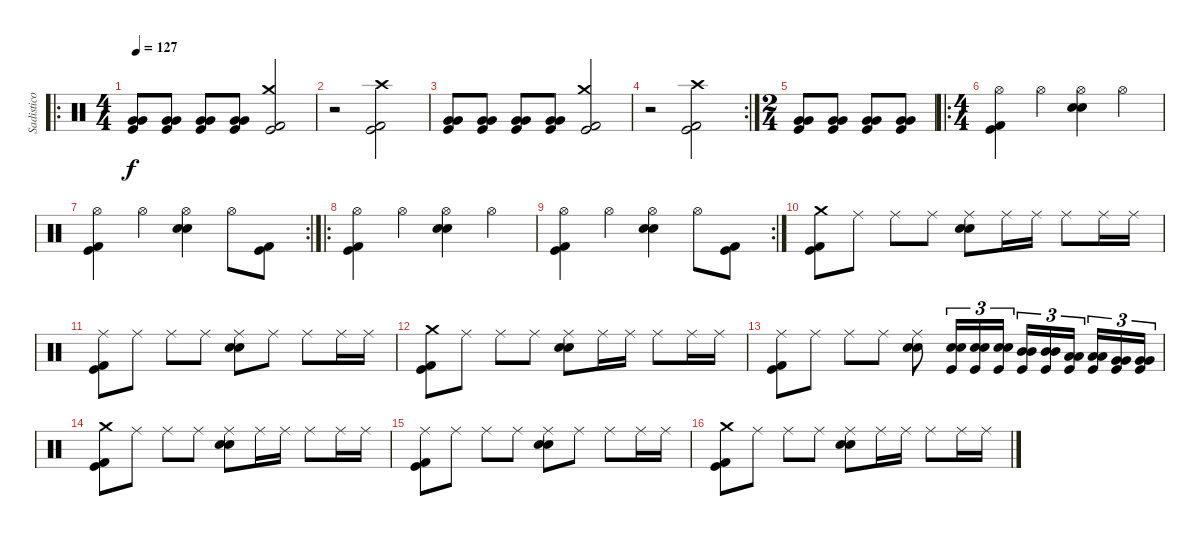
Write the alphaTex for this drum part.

\track ("Sadistico" "Sadistico") {instrument percussion}
\staff {score}
\articulation defaults
\ro
\ts (4 4)
\tempo 127
\clef neutral
\ks c
("Kick (hit)" "Very Low Tom (hit)" "Very Low Tom (hit)").8{dy f} ("Kick (hit)" "Very Low Tom (hit)" "Very Low Tom (hit)").8 ("Kick (hit)" "Very Low Tom (hit)" "Very Low Tom (hit)").8 ("Kick (hit)" "Very Low Tom (hit)" "Very Low Tom (hit)").8 ("Crash medium (hit)" "Kick (hit)" "Kick (hit) 2").2 |
r.2 ("Crash high (hit)" "Kick (hit)" "Kick (hit) 2").2 |
("Kick (hit)" "Very Low Tom (hit)" "Very Low Tom (hit)").8 ("Kick (hit)" "Very Low Tom (hit)" "Very Low Tom (hit)").8 ("Kick (hit)" "Very Low Tom (hit)" "Very Low Tom (hit)").8 ("Kick (hit)" "Very Low Tom (hit)" "Very Low Tom (hit)").8 ("Crash medium (hit)" "Kick (hit)" "Kick (hit) 2").2 |
\rc 2
r.2 ("Crash high (hit)" "Kick (hit)" "Kick (hit) 2").2 |
\ts (2 4)
("Kick (hit)" "Very Low Tom (hit)" "Very Low Tom (hit)").8 ("Kick (hit)" "Very Low Tom (hit)" "Very Low Tom (hit)").8 ("Kick (hit)" "Very Low Tom (hit)" "Very Low Tom (hit)").8 ("Kick (hit)" "Very Low Tom (hit)" "Very Low Tom (hit)").8 |
\ro
\ts (4 4)
("Hi-Hat (open)" "Kick (hit)" "Kick (hit) 2").4 "Hi-Hat (open)".4 ("Hi-Hat (open)" "Snare (hit) 2" "Snare (hit) 2").4 "Hi-Hat (open)".4 |
\rc 2
("Hi-Hat (open)" "Kick (hit)" "Kick (hit) 2").4 "Hi-Hat (open)".4 ("Hi-Hat (open)" "Snare (hit) 2" "Snare (hit) 2").4 "Hi-Hat (open)".8 ("Kick (hit)" "Kick (hit) 2").8 |
\ro
("Hi-Hat (open)" "Kick (hit)" "Kick (hit) 2").4 "Hi-Hat (open)".4 ("Hi-Hat (open)" "Snare (hit) 2" "Snare (hit) 2").4 "Hi-Hat (open)".4 |
\rc 2
("Hi-Hat (open)" "Kick (hit)" "Kick (hit) 2").4 "Hi-Hat (open)".4 ("Hi-Hat (open)" "Snare (hit) 2" "Snare (hit) 2").4 "Hi-Hat (open)".8 ("Kick (hit)" "Kick (hit) 2").8 |
("Crash medium (hit)" "Kick (hit)" "Kick (hit) 2").8 "Ride (middle)".8 "Ride (middle)".8 "Ride (middle)".8 ("Ride (middle)" "Snare (hit) 2" "Snare (hit) 2").8 "Ride (middle)".16 "Ride (middle)".16 "Ride (middle)".8 "Ride (middle)".16 "Ride (middle)".16 |
("Ride (middle)" "Kick (hit)" "Kick (hit) 2").8 "Ride (middle)".8 "Ride (middle)".8 "Ride (middle)".8 ("Ride (middle)" "Snare (hit) 2" "Snare (hit) 2").8 "Ride (middle)".8 "Ride (middle)".8 "Ride (middle)".16 "Ride (middle)".16 |
("Crash medium (hit)" "Kick (hit)" "Kick (hit) 2").8 "Ride (middle)".8 "Ride (middle)".8 "Ride (middle)".8 ("Ride (middle)" "Snare (hit) 2" "Snare (hit) 2").8 "Ride (middle)".16 "Ride (middle)".16 "Ride (middle)".8 "Ride (middle)".16 "Ride (middle)".16 |
("Ride (middle)" "Kick (hit)" "Kick (hit) 2").8 "Ride (middle)".8 "Ride (middle)".8 "Ride (middle)".8 ("Ride (middle)" "Snare (hit) 2" "Snare (hit) 2").8 ("Snare (hit) 2" "Snare (hit) 2" "Kick (hit)").16{tu (3 2)} ("Snare (hit) 2" "Snare (hit) 2" "Kick (hit)").16{tu (3 2)} ("Snare (hit) 2" "Snare (hit) 2" "Kick (hit)").16{tu (3 2)} ("Mid Tom (hit)" "Mid Tom (hit)" "Kick (hit)").16{tu (3 2)} ("Mid Tom (hit)" "Mid Tom (hit)" "Kick (hit)").16{tu (3 2)} ("Low Tom (hit)" "Low Tom (hit)" "Kick (hit)").16{tu (3 2)} ("Low Tom (hit)" "Low Tom (hit)" "Kick (hit)").16{tu (3 2)} ("Very Low Tom (hit)" "Very Low Tom (hit)" "Kick (hit)").16{tu (3 2)} ("Very Low Tom (hit)" "Very Low Tom (hit)" "Kick (hit)").16{tu (3 2)} |
("Crash medium (hit)" "Kick (hit)" "Kick (hit) 2").8 "Ride (middle)".8 "Ride (middle)".8 "Ride (middle)".8 ("Ride (middle)" "Snare (hit) 2" "Snare (hit) 2").8 "Ride (middle)".16 "Ride (middle)".16 "Ride (middle)".8 "Ride (middle)".16 "Ride (middle)".16 |
("Ride (middle)" "Kick (hit)" "Kick (hit) 2").8 "Ride (middle)".8 "Ride (middle)".8 "Ride (middle)".8 ("Ride (middle)" "Snare (hit) 2" "Snare (hit) 2").8 "Ride (middle)".8 "Ride (middle)".8 "Ride (middle)".16 "Ride (middle)".16 |
("Crash medium (hit)" "Kick (hit)" "Kick (hit) 2").8 "Ride (middle)".8 "Ride (middle)".8 "Ride (middle)".8 ("Ride (middle)" "Snare (hit) 2" "Snare (hit) 2").8 "Ride (middle)".16 "Ride (middle)".16 "Ride (middle)".8 "Ride (middle)".16 "Ride (middle)".16
